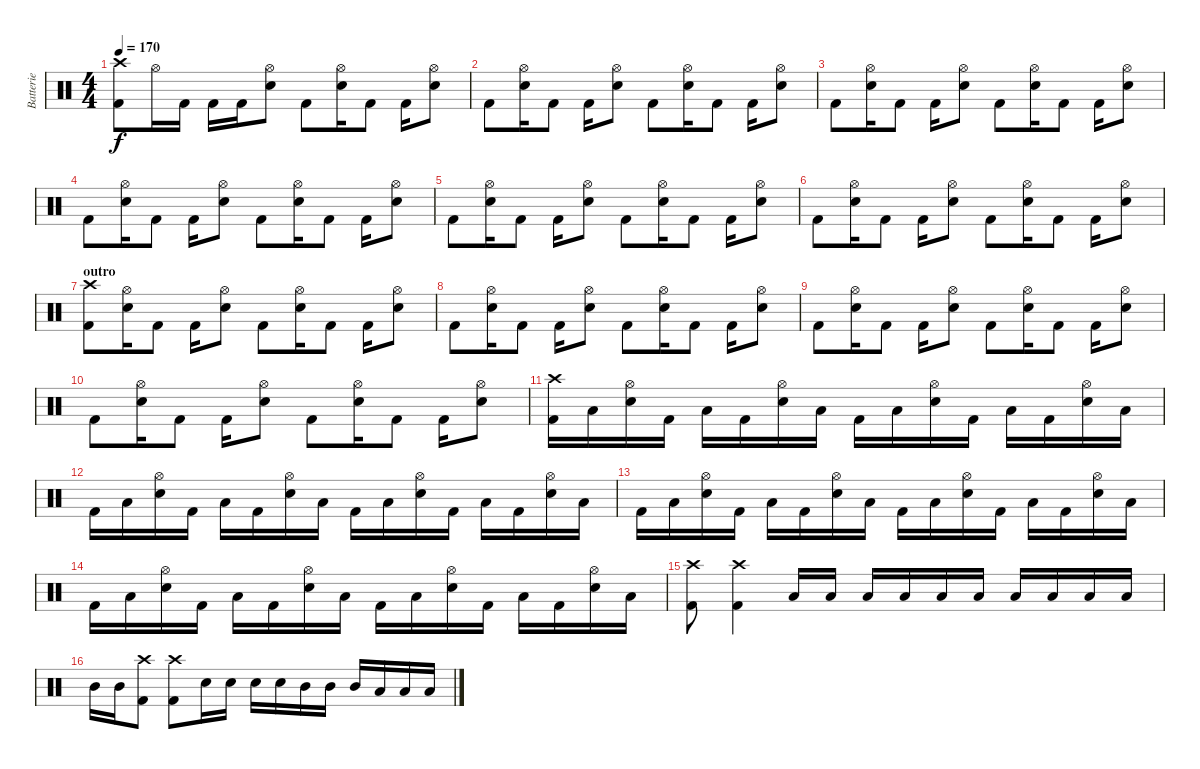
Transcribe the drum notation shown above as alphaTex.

\track ("Batterie" "Batterie") {instrument percussion}
\staff {score}
\articulation defaults
\ts (4 4)
\tempo 170
\clef neutral
\ks c
("Crash high (hit)" "Kick (hit) 2").8{dy f} "Hi-Hat (open)".16 "Kick (hit) 2".16 "Kick (hit) 2".16 "Kick (hit) 2".16 ("Hi-Hat (open)" "Electric Snare (hit)").8 "Kick (hit) 2".8 ("Hi-Hat (open)" "Electric Snare (hit)").16 "Kick (hit) 2".8 "Kick (hit) 2".16 ("Hi-Hat (open)" "Electric Snare (hit)").8 |
"Kick (hit) 2".8 ("Hi-Hat (open)" "Electric Snare (hit)").16 "Kick (hit) 2".8 "Kick (hit) 2".16 ("Hi-Hat (open)" "Electric Snare (hit)").8 "Kick (hit) 2".8 ("Hi-Hat (open)" "Electric Snare (hit)").16 "Kick (hit) 2".8 "Kick (hit) 2".16 ("Hi-Hat (open)" "Electric Snare (hit)").8 |
"Kick (hit) 2".8 ("Hi-Hat (open)" "Electric Snare (hit)").16 "Kick (hit) 2".8 "Kick (hit) 2".16 ("Hi-Hat (open)" "Electric Snare (hit)").8 "Kick (hit) 2".8 ("Hi-Hat (open)" "Electric Snare (hit)").16 "Kick (hit) 2".8 "Kick (hit) 2".16 ("Hi-Hat (open)" "Electric Snare (hit)").8 |
"Kick (hit) 2".8 ("Hi-Hat (open)" "Electric Snare (hit)").16 "Kick (hit) 2".8 "Kick (hit) 2".16 ("Hi-Hat (open)" "Electric Snare (hit)").8 "Kick (hit) 2".8 ("Hi-Hat (open)" "Electric Snare (hit)").16 "Kick (hit) 2".8 "Kick (hit) 2".16 ("Hi-Hat (open)" "Electric Snare (hit)").8 |
"Kick (hit) 2".8 ("Hi-Hat (open)" "Electric Snare (hit)").16 "Kick (hit) 2".8 "Kick (hit) 2".16 ("Hi-Hat (open)" "Electric Snare (hit)").8 "Kick (hit) 2".8 ("Hi-Hat (open)" "Electric Snare (hit)").16 "Kick (hit) 2".8 "Kick (hit) 2".16 ("Hi-Hat (open)" "Electric Snare (hit)").8 |
"Kick (hit) 2".8 ("Hi-Hat (open)" "Electric Snare (hit)").16 "Kick (hit) 2".8 "Kick (hit) 2".16 ("Hi-Hat (open)" "Electric Snare (hit)").8 "Kick (hit) 2".8 ("Hi-Hat (open)" "Electric Snare (hit)").16 "Kick (hit) 2".8 "Kick (hit) 2".16 ("Hi-Hat (open)" "Electric Snare (hit)").8 |
\section ("" "outro")
("Crash high (hit)" "Kick (hit) 2").8 ("Hi-Hat (open)" "Electric Snare (hit)").16 "Kick (hit) 2".8 "Kick (hit) 2".16 ("Hi-Hat (open)" "Electric Snare (hit)").8 "Kick (hit) 2".8 ("Hi-Hat (open)" "Electric Snare (hit)").16 "Kick (hit) 2".8 "Kick (hit) 2".16 ("Hi-Hat (open)" "Electric Snare (hit)").8 |
"Kick (hit) 2".8 ("Hi-Hat (open)" "Electric Snare (hit)").16 "Kick (hit) 2".8 "Kick (hit) 2".16 ("Hi-Hat (open)" "Electric Snare (hit)").8 "Kick (hit) 2".8 ("Hi-Hat (open)" "Electric Snare (hit)").16 "Kick (hit) 2".8 "Kick (hit) 2".16 ("Hi-Hat (open)" "Electric Snare (hit)").8 |
"Kick (hit) 2".8 ("Hi-Hat (open)" "Electric Snare (hit)").16 "Kick (hit) 2".8 "Kick (hit) 2".16 ("Hi-Hat (open)" "Electric Snare (hit)").8 "Kick (hit) 2".8 ("Hi-Hat (open)" "Electric Snare (hit)").16 "Kick (hit) 2".8 "Kick (hit) 2".16 ("Hi-Hat (open)" "Electric Snare (hit)").8 |
"Kick (hit) 2".8 ("Hi-Hat (open)" "Electric Snare (hit)").16 "Kick (hit) 2".8 "Kick (hit) 2".16 ("Hi-Hat (open)" "Electric Snare (hit)").8 "Kick (hit) 2".8 ("Hi-Hat (open)" "Electric Snare (hit)").16 "Kick (hit) 2".8 "Kick (hit) 2".16 ("Hi-Hat (open)" "Electric Snare (hit)").8 |
("Crash high (hit)" "Kick (hit) 2").16 "Low Floor Tom (hit)".16 ("Hi-Hat (open)" "Electric Snare (hit)").16 "Kick (hit) 2".16 "Low Floor Tom (hit)".16 "Kick (hit) 2".16 ("Hi-Hat (open)" "Electric Snare (hit)").16 "Low Floor Tom (hit)".16 "Kick (hit) 2".16 "Low Floor Tom (hit)".16 ("Hi-Hat (open)" "Electric Snare (hit)").16 "Kick (hit) 2".16 "Low Floor Tom (hit)".16 "Kick (hit) 2".16 ("Hi-Hat (open)" "Electric Snare (hit)").16 "Low Floor Tom (hit)".16 |
"Kick (hit) 2".16 "Low Floor Tom (hit)".16 ("Hi-Hat (open)" "Electric Snare (hit)").16 "Kick (hit) 2".16 "Low Floor Tom (hit)".16 "Kick (hit) 2".16 ("Hi-Hat (open)" "Electric Snare (hit)").16 "Low Floor Tom (hit)".16 "Kick (hit) 2".16 "Low Floor Tom (hit)".16 ("Hi-Hat (open)" "Electric Snare (hit)").16 "Kick (hit) 2".16 "Low Floor Tom (hit)".16 "Kick (hit) 2".16 ("Hi-Hat (open)" "Electric Snare (hit)").16 "Low Floor Tom (hit)".16 |
"Kick (hit) 2".16 "Low Floor Tom (hit)".16 ("Hi-Hat (open)" "Electric Snare (hit)").16 "Kick (hit) 2".16 "Low Floor Tom (hit)".16 "Kick (hit) 2".16 ("Hi-Hat (open)" "Electric Snare (hit)").16 "Low Floor Tom (hit)".16 "Kick (hit) 2".16 "Low Floor Tom (hit)".16 ("Hi-Hat (open)" "Electric Snare (hit)").16 "Kick (hit) 2".16 "Low Floor Tom (hit)".16 "Kick (hit) 2".16 ("Hi-Hat (open)" "Electric Snare (hit)").16 "Low Floor Tom (hit)".16 |
"Kick (hit) 2".16 "Low Floor Tom (hit)".16 ("Hi-Hat (open)" "Electric Snare (hit)").16 "Kick (hit) 2".16 "Low Floor Tom (hit)".16 "Kick (hit) 2".16 ("Hi-Hat (open)" "Electric Snare (hit)").16 "Low Floor Tom (hit)".16 "Kick (hit) 2".16 "Low Floor Tom (hit)".16 ("Hi-Hat (open)" "Electric Snare (hit)").16 "Kick (hit) 2".16 "Low Floor Tom (hit)".16 "Kick (hit) 2".16 ("Hi-Hat (open)" "Electric Snare (hit)").16 "Low Floor Tom (hit)".16 |
("Crash high (hit)" "Kick (hit) 2").8 ("Crash high (hit)" "Kick (hit) 2").4 "Low Floor Tom (hit)".16 "Low Floor Tom (hit)".16 "Low Floor Tom (hit)".16 "Low Floor Tom (hit)".16 "Low Tom (hit)".16 "Low Tom (hit)".16 "Low Tom (hit)".16 "Low Tom (hit)".16 "Low Tom (hit)".16 "Low Tom (hit)".16 |
"Mid Tom (hit)".16 "Mid Tom (hit)".16 ("Crash high (hit)" "Kick (hit) 2").8 ("Crash high (hit)" "Kick (hit) 2").8 "Electric Snare (hit)".16 "Electric Snare (hit)".16 "Electric Snare (hit)".16 "Electric Snare (hit)".16 "Mid Tom (hit)".16 "Mid Tom (hit)".16 "Mid Tom (hit)".16 "Low Tom (hit)".16 "Low Tom (hit)".16 "Low Tom (hit)".16
